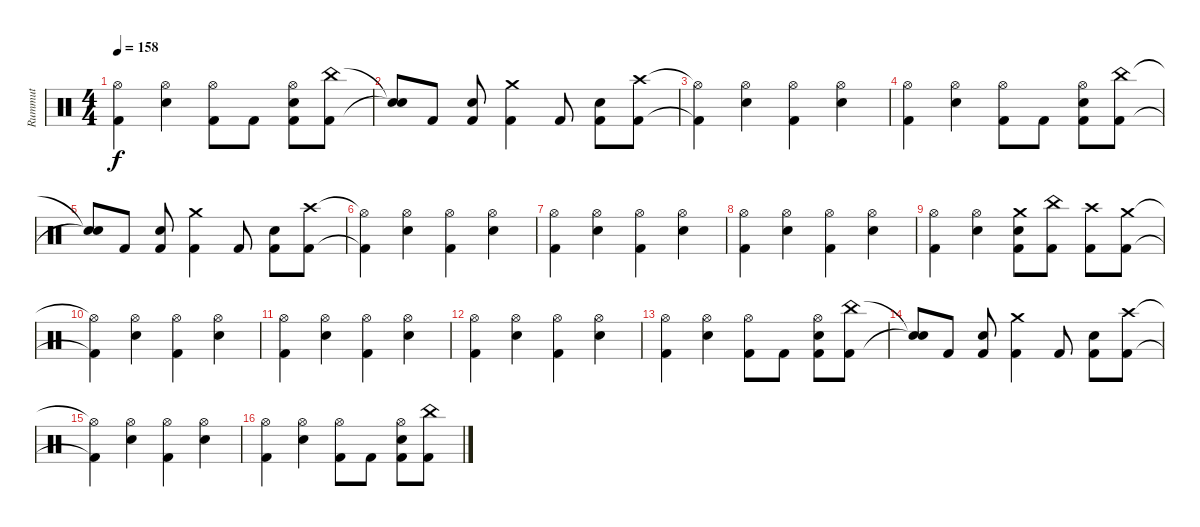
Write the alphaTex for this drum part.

\track ("Rummut" "Rummut") {instrument percussion}
\staff {score}
\articulation defaults
\ts (4 4)
\tempo 158
\clef neutral
\ks c
("Hi-Hat (open)" "Kick (hit) 2").4{dy f} ("Hi-Hat (open)" "Electric Snare (hit)").4 ("Hi-Hat (open)" "Kick (hit) 2").8 "Kick (hit) 2".8 ("Hi-Hat (open)" "Electric Snare (hit)" "Kick (hit) 2").8 ("China (hit)" "Kick (hit) 2").8 |
("Snare (hit)"{t} "Snare (hit)"{t}).8 "Kick (hit) 2".8 ("Electric Snare (hit)" "Kick (hit) 2").8 ("Crash medium (hit)" "Kick (hit) 2").4 "Kick (hit) 2".8 ("Electric Snare (hit)" "Kick (hit) 2").8 ("Crash high (hit)" "Kick (hit) 2").8 |
("Hi-Hat (open)"{t} "Kick (hit) 2"{t}).4 ("Hi-Hat (open)" "Electric Snare (hit)").4 ("Hi-Hat (open)" "Kick (hit) 2").4 ("Hi-Hat (open)" "Electric Snare (hit)").4 |
("Hi-Hat (open)" "Kick (hit) 2").4 ("Hi-Hat (open)" "Electric Snare (hit)").4 ("Hi-Hat (open)" "Kick (hit) 2").8 "Kick (hit) 2".8 ("Hi-Hat (open)" "Electric Snare (hit)" "Kick (hit) 2").8 ("China (hit)" "Kick (hit) 2").8 |
("Snare (hit)"{t} "Snare (hit)"{t}).8 "Kick (hit) 2".8 ("Electric Snare (hit)" "Kick (hit) 2").8 ("Crash medium (hit)" "Kick (hit) 2").4 "Kick (hit) 2".8 ("Electric Snare (hit)" "Kick (hit) 2").8 ("Crash high (hit)" "Kick (hit) 2").8 |
("Hi-Hat (open)"{t} "Kick (hit) 2"{t}).4 ("Hi-Hat (open)" "Electric Snare (hit)").4 ("Hi-Hat (open)" "Kick (hit) 2").4 ("Hi-Hat (open)" "Electric Snare (hit)").4 |
("Hi-Hat (open)" "Kick (hit) 2").4 ("Hi-Hat (open)" "Electric Snare (hit)").4 ("Hi-Hat (open)" "Kick (hit) 2").4 ("Hi-Hat (open)" "Electric Snare (hit)").4 |
("Hi-Hat (open)" "Kick (hit) 2").4 ("Hi-Hat (open)" "Electric Snare (hit)").4 ("Hi-Hat (open)" "Kick (hit) 2").4 ("Hi-Hat (open)" "Electric Snare (hit)").4 |
("Hi-Hat (open)" "Kick (hit) 2").4 ("Hi-Hat (open)" "Electric Snare (hit)").4 ("Crash medium (hit)" "Electric Snare (hit)" "Kick (hit) 2").8 ("China (hit)" "Kick (hit) 2").8 ("Crash high (hit)" "Kick (hit) 2").8 ("Crash medium (hit)" "Kick (hit) 2").8 |
("Hi-Hat (open)"{t} "Kick (hit) 2"{t}).4 ("Hi-Hat (open)" "Electric Snare (hit)").4 ("Hi-Hat (open)" "Kick (hit) 2").4 ("Hi-Hat (open)" "Electric Snare (hit)").4 |
("Hi-Hat (open)" "Kick (hit) 2").4 ("Hi-Hat (open)" "Electric Snare (hit)").4 ("Hi-Hat (open)" "Kick (hit) 2").4 ("Hi-Hat (open)" "Electric Snare (hit)").4 |
("Hi-Hat (open)" "Kick (hit) 2").4 ("Hi-Hat (open)" "Electric Snare (hit)").4 ("Hi-Hat (open)" "Kick (hit) 2").4 ("Hi-Hat (open)" "Electric Snare (hit)").4 |
("Hi-Hat (open)" "Kick (hit) 2").4 ("Hi-Hat (open)" "Electric Snare (hit)").4 ("Hi-Hat (open)" "Kick (hit) 2").8 "Kick (hit) 2".8 ("Hi-Hat (open)" "Electric Snare (hit)" "Kick (hit) 2").8 ("China (hit)" "Kick (hit) 2").8 |
("Snare (hit)"{t} "Snare (hit)"{t}).8 "Kick (hit) 2".8 ("Electric Snare (hit)" "Kick (hit) 2").8 ("Crash medium (hit)" "Kick (hit) 2").4 "Kick (hit) 2".8 ("Electric Snare (hit)" "Kick (hit) 2").8 ("Crash high (hit)" "Kick (hit) 2").8 |
("Hi-Hat (open)"{t} "Kick (hit) 2"{t}).4 ("Hi-Hat (open)" "Electric Snare (hit)").4 ("Hi-Hat (open)" "Kick (hit) 2").4 ("Hi-Hat (open)" "Electric Snare (hit)").4 |
("Hi-Hat (open)" "Kick (hit) 2").4 ("Hi-Hat (open)" "Electric Snare (hit)").4 ("Hi-Hat (open)" "Kick (hit) 2").8 "Kick (hit) 2".8 ("Hi-Hat (open)" "Electric Snare (hit)" "Kick (hit) 2").8 ("China (hit)" "Kick (hit) 2").8
